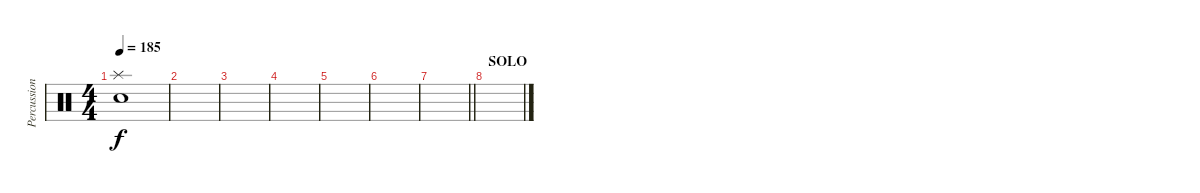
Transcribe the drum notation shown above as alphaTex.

\track ("Percussions" "Percussion") {instrument percussion}
\staff {score}
\articulation defaults
\ts (4 4)
\tempo 185
\clef neutral
\ks c
("Splash (hit)" "Electric Snare (hit)").1{dy f} |
|
|
|
|
|
\barLineRight lightlight
|
\section ("" "SOLO")
